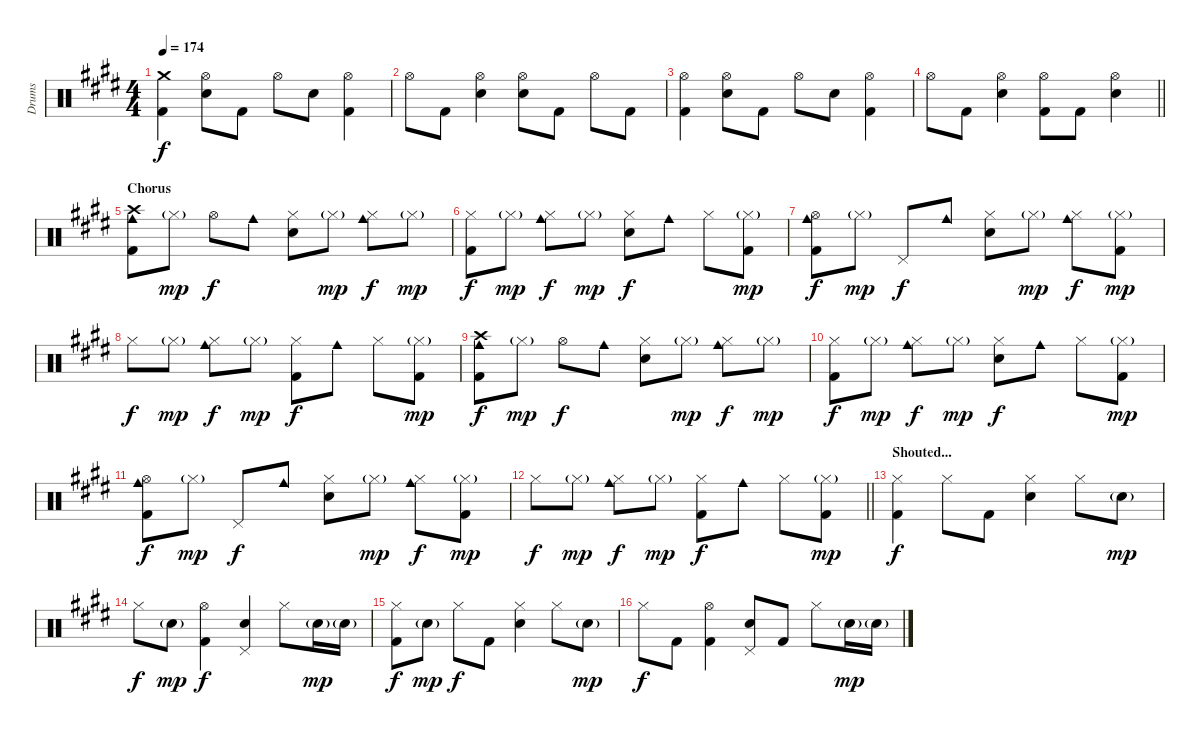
\track ("Drums" "Drums") {instrument percussion bank 177}
\staff {score}
\articulation defaults
\ts (4 4)
\tempo 174
\clef neutral
\ks e
("Crash medium (hit)" "Kick (hit) 2").4{dy f} ("Hi-Hat (open)" "Electric Snare (hit)").8 "Kick (hit) 2".8 "Hi-Hat (open)".8 "Electric Snare (hit)".8 ("Hi-Hat (open)" "Kick (hit) 2").4 |
"Hi-Hat (open)".8 "Kick (hit) 2".8 ("Hi-Hat (open)" "Electric Snare (hit)").4 ("Hi-Hat (open)" "Electric Snare (hit)").8 "Kick (hit) 2".8 "Hi-Hat (open)".8 "Kick (hit) 2".8 |
("Hi-Hat (open)" "Kick (hit) 2").4 ("Hi-Hat (open)" "Electric Snare (hit)").8 "Kick (hit) 2".8 "Hi-Hat (open)".8 "Electric Snare (hit)".8 ("Hi-Hat (open)" "Kick (hit) 2").4 |
\barLineRight lightlight "Hi-Hat (open)".8 "Kick (hit) 2".8
("Hi-Hat (open)" "Electric Snare (hit)").4 ("Hi-Hat (open)" "Kick (hit) 2").8 "Kick (hit) 2".8 ("Hi-Hat (open)" "Electric Snare (hit)").4 |
\section ("" "Chorus")
("Crash high (hit)" "Kick (hit) 2" "Cowbell medium (hit)").8 "Hi-Hat (closed)"{g}.8{dy mp} "Hi-Hat (open)".8{dy f} "Cowbell medium (hit)".8 ("Hi-Hat (closed)" "Electric Snare (hit)").8 "Hi-Hat (closed)"{g}.8{dy mp} ("Hi-Hat (closed)" "Cowbell medium (hit)").8{dy f} "Hi-Hat (closed)"{g}.8{dy mp} |
("Hi-Hat (closed)" "Kick (hit) 2").8{dy f} "Hi-Hat (closed)"{g}.8{dy mp} ("Hi-Hat (closed)" "Cowbell medium (hit)").8{dy f} "Hi-Hat (closed)"{g}.8{dy mp} ("Hi-Hat (closed)" "Electric Snare (hit)").8{dy f} "Cowbell medium (hit)".8 "Hi-Hat (closed)".8 ("Hi-Hat (closed)"{g} "Kick (hit) 2").8{dy mp} |
("Hi-Hat (open)" "Kick (hit) 2" "Cowbell medium (hit)").8{dy f} "Hi-Hat (closed)"{g}.8{dy mp} "Pedal Hi-Hat (hit)".8{dy f} "Cowbell medium (hit)".8 ("Hi-Hat (closed)" "Electric Snare (hit)").8 "Hi-Hat (closed)"{g}.8{dy mp} ("Hi-Hat (closed)" "Cowbell medium (hit)").8{dy f} ("Hi-Hat (closed)"{g} "Kick (hit) 2").8{dy mp} |
"Hi-Hat (closed)".8{dy f} "Hi-Hat (closed)"{g}.8{dy mp} ("Hi-Hat (closed)" "Cowbell medium (hit)").8{dy f} "Hi-Hat (closed)"{g}.8{dy mp} ("Hi-Hat (closed)" "Kick (hit) 2").8{dy f} "Cowbell medium (hit)".8 "Hi-Hat (closed)".8 ("Hi-Hat (closed)"{g} "Kick (hit) 2").8{dy mp} |
("Crash high (hit)" "Kick (hit) 2" "Cowbell medium (hit)").8{dy f} "Hi-Hat (closed)"{g}.8{dy mp} "Hi-Hat (open)".8{dy f} "Cowbell medium (hit)".8 ("Hi-Hat (closed)" "Electric Snare (hit)").8 "Hi-Hat (closed)"{g}.8{dy mp} ("Hi-Hat (closed)" "Cowbell medium (hit)").8{dy f} "Hi-Hat (closed)"{g}.8{dy mp} |
("Hi-Hat (closed)" "Kick (hit) 2").8{dy f} "Hi-Hat (closed)"{g}.8{dy mp} ("Hi-Hat (closed)" "Cowbell medium (hit)").8{dy f} "Hi-Hat (closed)"{g}.8{dy mp} ("Hi-Hat (closed)" "Electric Snare (hit)").8{dy f} "Cowbell medium (hit)".8 "Hi-Hat (closed)".8 ("Hi-Hat (closed)"{g} "Kick (hit) 2").8{dy mp} |
("Hi-Hat (open)" "Kick (hit) 2" "Cowbell medium (hit)").8{dy f} "Hi-Hat (closed)"{g}.8{dy mp} "Pedal Hi-Hat (hit)".8{dy f} "Cowbell medium (hit)".8 ("Hi-Hat (closed)" "Electric Snare (hit)").8 "Hi-Hat (closed)"{g}.8{dy mp} ("Hi-Hat (closed)" "Cowbell medium (hit)").8{dy f} ("Hi-Hat (closed)"{g} "Kick (hit) 2").8{dy mp} |
\barLineRight lightlight "Hi-Hat (closed)".8{dy f} "Hi-Hat (closed)"{g}.8{dy mp}
("Hi-Hat (closed)" "Cowbell medium (hit)").8{dy f} "Hi-Hat (closed)"{g}.8{dy mp} ("Hi-Hat (closed)" "Kick (hit) 2").8{dy f} "Cowbell medium (hit)".8 "Hi-Hat (closed)".8 ("Hi-Hat (closed)"{g} "Kick (hit) 2").8{dy mp} |
\section ("" "Shouted...")
("Hi-Hat (closed)" "Kick (hit) 2").4{dy f} "Hi-Hat (closed)".8 "Kick (hit) 2".8 ("Hi-Hat (closed)" "Electric Snare (hit)").4 "Hi-Hat (closed)".8 "Electric Snare (hit)"{g}.8{dy mp} |
"Hi-Hat (closed)".8{dy f} "Electric Snare (hit)"{g}.8{dy mp} ("Hi-Hat (open)" "Kick (hit) 2").4{dy f} ("Pedal Hi-Hat (hit)" "Electric Snare (hit)").4 "Hi-Hat (closed)".8 "Electric Snare (hit)"{g}.16{dy mp} "Electric Snare (hit)"{g}.16 |
("Hi-Hat (closed)" "Kick (hit) 2").8{dy f} "Electric Snare (hit)"{g}.8{dy mp} "Hi-Hat (closed)".8{dy f} "Kick (hit) 2".8 ("Hi-Hat (closed)" "Electric Snare (hit)").4 "Hi-Hat (closed)".8 "Electric Snare (hit)"{g}.8{dy mp} |
"Hi-Hat (closed)".8{dy f} "Kick (hit) 2".8 ("Hi-Hat (open)" "Kick (hit) 2").4 ("Pedal Hi-Hat (hit)" "Electric Snare (hit)").8 "Kick (hit) 2".8 "Hi-Hat (closed)".8 "Electric Snare (hit)"{g}.16{dy mp} "Electric Snare (hit)"{g}.16
